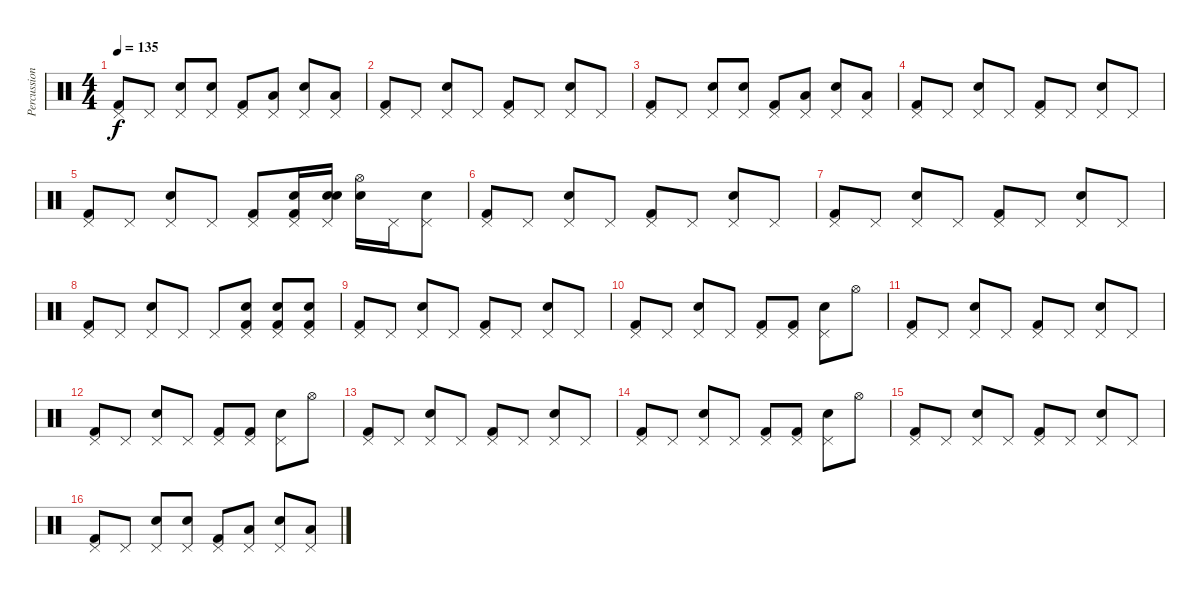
\track ("Percussion" "Percussion") {instrument percussion}
\staff {score}
\articulation defaults
\ts (4 4)
\tempo 135
\clef neutral
\ks c
("Pedal Hi-Hat (hit)" "Kick (hit) 2").8{dy f} "Pedal Hi-Hat (hit)".8 ("Pedal Hi-Hat (hit)" "Electric Snare (hit)").8 ("Pedal Hi-Hat (hit)" "Electric Snare (hit)").8 ("Pedal Hi-Hat (hit)" "Kick (hit) 2").8 ("Pedal Hi-Hat (hit)" "Low Floor Tom (hit)").8 ("Pedal Hi-Hat (hit)" "Electric Snare (hit)").8 ("Pedal Hi-Hat (hit)" "Low Floor Tom (hit)").8 |
("Pedal Hi-Hat (hit)" "Kick (hit) 2").8 "Pedal Hi-Hat (hit)".8 ("Pedal Hi-Hat (hit)" "Electric Snare (hit)").8 "Pedal Hi-Hat (hit)".8 ("Pedal Hi-Hat (hit)" "Kick (hit) 2").8 "Pedal Hi-Hat (hit)".8 ("Pedal Hi-Hat (hit)" "Electric Snare (hit)").8 "Pedal Hi-Hat (hit)".8 |
("Pedal Hi-Hat (hit)" "Kick (hit) 2").8 "Pedal Hi-Hat (hit)".8 ("Pedal Hi-Hat (hit)" "Electric Snare (hit)").8 ("Pedal Hi-Hat (hit)" "Electric Snare (hit)").8 ("Pedal Hi-Hat (hit)" "Kick (hit) 2").8 ("Pedal Hi-Hat (hit)" "Low Floor Tom (hit)").8 ("Pedal Hi-Hat (hit)" "Electric Snare (hit)").8 ("Pedal Hi-Hat (hit)" "Low Floor Tom (hit)").8 |
("Pedal Hi-Hat (hit)" "Kick (hit) 2").8 "Pedal Hi-Hat (hit)".8 ("Pedal Hi-Hat (hit)" "Electric Snare (hit)").8 "Pedal Hi-Hat (hit)".8 ("Pedal Hi-Hat (hit)" "Kick (hit) 2").8 "Pedal Hi-Hat (hit)".8 ("Pedal Hi-Hat (hit)" "Electric Snare (hit)").8 "Pedal Hi-Hat (hit)".8 |
("Pedal Hi-Hat (hit)" "Kick (hit) 2").8 "Pedal Hi-Hat (hit)".8 ("Pedal Hi-Hat (hit)" "Electric Snare (hit)").8 "Pedal Hi-Hat (hit)".8 ("Pedal Hi-Hat (hit)" "Kick (hit) 2").8 ("Pedal Hi-Hat (hit)" "Electric Snare (hit)" "Kick (hit) 2").16 ("Pedal Hi-Hat (hit)" "Electric Snare (hit)" "Electric Snare (hit)").16 ("Hi-Hat (open)" "Electric Snare (hit)").16 "Pedal Hi-Hat (hit)".16 ("Pedal Hi-Hat (hit)" "Electric Snare (hit)").8 |
("Pedal Hi-Hat (hit)" "Kick (hit) 2").8 "Pedal Hi-Hat (hit)".8 ("Pedal Hi-Hat (hit)" "Electric Snare (hit)").8 "Pedal Hi-Hat (hit)".8 ("Pedal Hi-Hat (hit)" "Kick (hit) 2").8 "Pedal Hi-Hat (hit)".8 ("Pedal Hi-Hat (hit)" "Electric Snare (hit)").8 "Pedal Hi-Hat (hit)".8 |
("Pedal Hi-Hat (hit)" "Kick (hit) 2").8 "Pedal Hi-Hat (hit)".8 ("Pedal Hi-Hat (hit)" "Electric Snare (hit)").8 "Pedal Hi-Hat (hit)".8 ("Pedal Hi-Hat (hit)" "Kick (hit) 2").8 "Pedal Hi-Hat (hit)".8 ("Pedal Hi-Hat (hit)" "Electric Snare (hit)").8 "Pedal Hi-Hat (hit)".8 |
("Pedal Hi-Hat (hit)" "Kick (hit) 2").8 "Pedal Hi-Hat (hit)".8 ("Pedal Hi-Hat (hit)" "Electric Snare (hit)").8 "Pedal Hi-Hat (hit)".8 "Pedal Hi-Hat (hit)".8 ("Pedal Hi-Hat (hit)" "Electric Snare (hit)" "Kick (hit) 2").8 ("Pedal Hi-Hat (hit)" "Electric Snare (hit)" "Kick (hit) 2").8 ("Pedal Hi-Hat (hit)" "Electric Snare (hit)" "Kick (hit) 2").8 |
("Pedal Hi-Hat (hit)" "Kick (hit) 2").8 "Pedal Hi-Hat (hit)".8 ("Pedal Hi-Hat (hit)" "Electric Snare (hit)").8 "Pedal Hi-Hat (hit)".8 ("Pedal Hi-Hat (hit)" "Kick (hit) 2").8 "Pedal Hi-Hat (hit)".8 ("Pedal Hi-Hat (hit)" "Electric Snare (hit)").8 "Pedal Hi-Hat (hit)".8 |
("Pedal Hi-Hat (hit)" "Kick (hit) 2").8 "Pedal Hi-Hat (hit)".8 ("Pedal Hi-Hat (hit)" "Electric Snare (hit)").8 "Pedal Hi-Hat (hit)".8 ("Pedal Hi-Hat (hit)" "Kick (hit) 2").8 ("Pedal Hi-Hat (hit)" "Kick (hit) 2").8 ("Pedal Hi-Hat (hit)" "Electric Snare (hit)").8 "Hi-Hat (open)".8 |
("Pedal Hi-Hat (hit)" "Kick (hit) 2").8 "Pedal Hi-Hat (hit)".8 ("Pedal Hi-Hat (hit)" "Electric Snare (hit)").8 "Pedal Hi-Hat (hit)".8 ("Pedal Hi-Hat (hit)" "Kick (hit) 2").8 "Pedal Hi-Hat (hit)".8 ("Pedal Hi-Hat (hit)" "Electric Snare (hit)").8 "Pedal Hi-Hat (hit)".8 |
("Pedal Hi-Hat (hit)" "Kick (hit) 2").8 "Pedal Hi-Hat (hit)".8 ("Pedal Hi-Hat (hit)" "Electric Snare (hit)").8 "Pedal Hi-Hat (hit)".8 ("Pedal Hi-Hat (hit)" "Kick (hit) 2").8 ("Pedal Hi-Hat (hit)" "Kick (hit) 2").8 ("Pedal Hi-Hat (hit)" "Electric Snare (hit)").8 "Hi-Hat (open)".8 |
("Pedal Hi-Hat (hit)" "Kick (hit) 2").8 "Pedal Hi-Hat (hit)".8 ("Pedal Hi-Hat (hit)" "Electric Snare (hit)").8 "Pedal Hi-Hat (hit)".8 ("Pedal Hi-Hat (hit)" "Kick (hit) 2").8 "Pedal Hi-Hat (hit)".8 ("Pedal Hi-Hat (hit)" "Electric Snare (hit)").8 "Pedal Hi-Hat (hit)".8 |
("Pedal Hi-Hat (hit)" "Kick (hit) 2").8 "Pedal Hi-Hat (hit)".8 ("Pedal Hi-Hat (hit)" "Electric Snare (hit)").8 "Pedal Hi-Hat (hit)".8 ("Pedal Hi-Hat (hit)" "Kick (hit) 2").8 ("Pedal Hi-Hat (hit)" "Kick (hit) 2").8 ("Pedal Hi-Hat (hit)" "Electric Snare (hit)").8 "Hi-Hat (open)".8 |
("Pedal Hi-Hat (hit)" "Kick (hit) 2").8 "Pedal Hi-Hat (hit)".8 ("Pedal Hi-Hat (hit)" "Electric Snare (hit)").8 "Pedal Hi-Hat (hit)".8 ("Pedal Hi-Hat (hit)" "Kick (hit) 2").8 "Pedal Hi-Hat (hit)".8 ("Pedal Hi-Hat (hit)" "Electric Snare (hit)").8 "Pedal Hi-Hat (hit)".8 |
("Pedal Hi-Hat (hit)" "Kick (hit) 2").8 "Pedal Hi-Hat (hit)".8 ("Pedal Hi-Hat (hit)" "Electric Snare (hit)").8 ("Pedal Hi-Hat (hit)" "Electric Snare (hit)").8 ("Pedal Hi-Hat (hit)" "Kick (hit) 2").8 ("Pedal Hi-Hat (hit)" "Low Floor Tom (hit)").8 ("Pedal Hi-Hat (hit)" "Electric Snare (hit)").8 ("Pedal Hi-Hat (hit)" "Low Floor Tom (hit)").8
